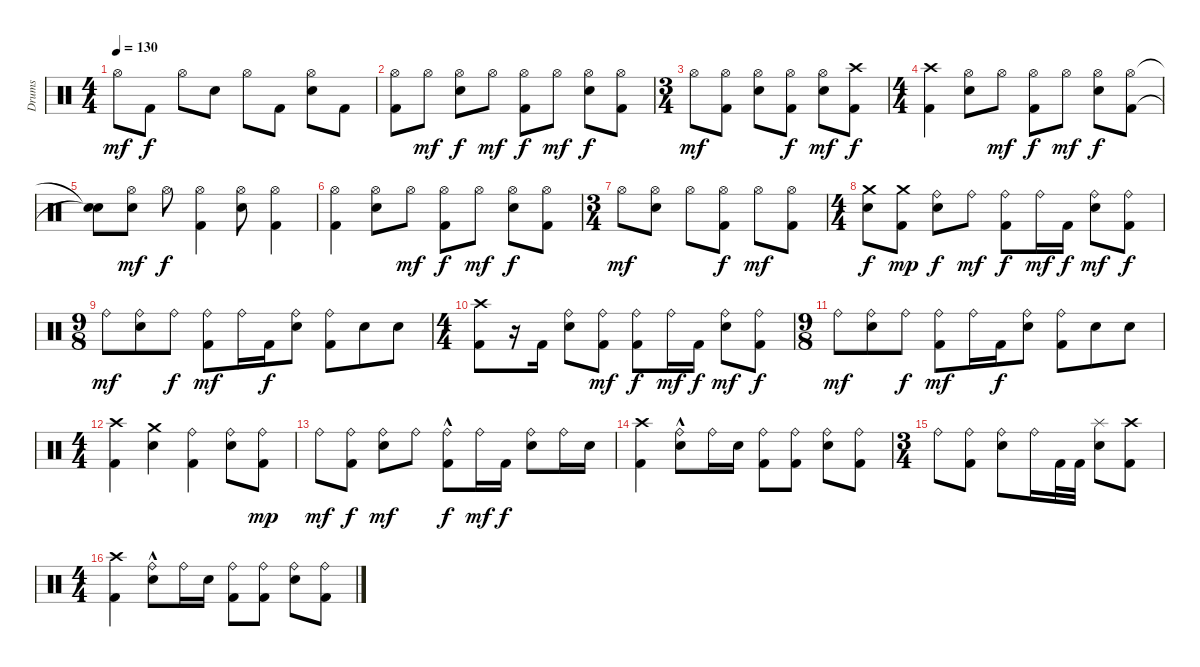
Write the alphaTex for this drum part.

\track ("Drums" "Drums") {instrument percussion}
\staff {score}
\articulation defaults
\ts (4 4)
\tempo 130
\clef neutral
\ks c "Hi-Hat (open)".8{dy mf} "Kick (hit) 2".8{dy f} "Hi-Hat (open)".8 "Electric Snare (hit)".8 "Hi-Hat (open)".8 "Kick (hit) 2".8
("Electric Snare (hit)" "Hi-Hat (open)").8 "Kick (hit) 2".8 |
("Kick (hit) 2" "Hi-Hat (open)").8 "Hi-Hat (open)".8{dy mf} ("Electric Snare (hit)" "Hi-Hat (open)").8{dy f} "Hi-Hat (open)".8{dy mf} ("Kick (hit) 2" "Hi-Hat (open)").8{dy f} "Hi-Hat (open)".8{dy mf} ("Electric Snare (hit)" "Hi-Hat (open)").8{dy f} ("Hi-Hat (open)" "Kick (hit) 2").8 |
\ts (3 4)
"Hi-Hat (open)".8{dy mf} ("Hi-Hat (open)" "Kick (hit) 2").8 ("Hi-Hat (open)" "Electric Snare (hit)").8 ("Hi-Hat (open)" "Kick (hit) 2").8{dy f} ("Electric Snare (hit)" "Hi-Hat (open)").8{dy mf} ("Kick (hit) 2" "Crash high (hit)").8{dy f} |
\ts (4 4)
("Kick (hit) 2" "Crash high (hit)").4 ("Electric Snare (hit)" "Hi-Hat (open)").8 "Hi-Hat (open)".8{dy mf} ("Kick (hit) 2" "Hi-Hat (open)").8{dy f} "Hi-Hat (open)".8{dy mf} ("Electric Snare (hit)" "Hi-Hat (open)").8{dy f} ("Kick (hit) 2" "Hi-Hat (open)").8 |
("Snare (hit)"{t} "Snare (hit)"{t}).8 ("Electric Snare (hit)" "Hi-Hat (open)").8{dy mf} "Hi-Hat (open)".8{dy f} ("Kick (hit) 2" "Hi-Hat (open)").4 ("Electric Snare (hit)" "Hi-Hat (open)").8 ("Hi-Hat (open)" "Kick (hit) 2").4 |
("Kick (hit) 2" "Hi-Hat (open)").4 ("Electric Snare (hit)" "Hi-Hat (open)").8 "Hi-Hat (open)".8{dy mf} ("Kick (hit) 2" "Hi-Hat (open)").8{dy f} "Hi-Hat (open)".8{dy mf} ("Electric Snare (hit)" "Hi-Hat (open)").8{dy f} ("Kick (hit) 2" "Hi-Hat (open)").8 |
\ts (3 4)
"Hi-Hat (open)".8{dy mf} ("Electric Snare (hit)" "Hi-Hat (open)").8 "Hi-Hat (open)".8 ("Hi-Hat (open)" "Kick (hit) 2").8{dy f} "Hi-Hat (open)".8{dy mf} ("Hi-Hat (open)" "Kick (hit) 2").8 |
\ts (4 4)
("Electric Snare (hit)" "Crash medium (hit)").8{dy f} ("Kick (hit) 2" "Crash medium (hit)").8{dy mp} ("Electric Snare (hit)" "Ride (bell)").8{dy f} "Ride (bell)".8{dy mf} ("Kick (hit) 2" "Ride (bell)").8{dy f} "Ride (bell)".16{dy mf} "Kick (hit) 2".16{dy f} ("Electric Snare (hit)" "Ride (bell)").8{dy mf} ("Kick (hit) 2" "Ride (bell)").8{dy f} |
\ts (9 8)
"Ride (bell)".8{dy mf} ("Electric Snare (hit)" "Ride (bell)").8 "Ride (bell)".8{dy f} ("Kick (hit) 2" "Ride (bell)").8{dy mf} "Ride (bell)".16 "Kick (hit) 2".16{dy f} ("Electric Snare (hit)" "Ride (bell)").8 ("Kick (hit) 2" "Ride (bell)").8 "Electric Snare (hit)".8 "Electric Snare (hit)".8 |
\ts (4 4)
("Crash high (hit)" "Kick (hit) 2").8 r.16 "Kick (hit) 2".16 ("Electric Snare (hit)" "Ride (bell)").8 ("Ride (bell)" "Kick (hit) 2").8{dy mf} ("Kick (hit) 2" "Ride (bell)").8{dy f} "Ride (bell)".16{dy mf} "Kick (hit) 2".16{dy f} ("Electric Snare (hit)" "Ride (bell)").8{dy mf} ("Kick (hit) 2" "Ride (bell)").8{dy f} |
\ts (9 8)
"Ride (bell)".8{dy mf} ("Electric Snare (hit)" "Ride (bell)").8 "Ride (bell)".8{dy f} ("Ride (bell)" "Kick (hit) 2").8{dy mf} "Ride (bell)".16 "Kick (hit) 2".16{dy f} ("Electric Snare (hit)" "Ride (bell)").8 ("Kick (hit) 2" "Ride (bell)").8 "Electric Snare (hit)".8 "Electric Snare (hit)".8 |
\ts (4 4)
("Crash high (hit)" "Kick (hit) 2").4 ("Crash medium (hit)" "Electric Snare (hit)").4 ("Kick (hit) 2" "Ride (bell)").4 ("Electric Snare (hit)" "Ride (bell)").8 ("Kick (hit) 2" "Ride (bell)").8{dy mp} |
"Ride (bell)".8{dy mf} ("Kick (hit) 2" "Ride (bell)").8{dy f} ("Electric Snare (hit)" "Ride (bell)").8{dy mf} "Ride (bell)".8 ("Kick (hit) 2"{hac} "Ride (bell)").8{dy f} "Ride (bell)".16{dy mf} "Kick (hit) 2".16{dy f} ("Electric Snare (hit)" "Ride (bell)").8 "Ride (bell)".16 "Electric Snare (hit)".16 |
("Kick (hit) 2" "Crash high (hit)").4 ("Electric Snare (hit)"{hac} "Ride (bell)").8 "Ride (bell)".16 "Electric Snare (hit)".16 ("Kick (hit) 2" "Ride (bell)").8 ("Kick (hit) 2" "Ride (bell)").8 ("Electric Snare (hit)" "Ride (bell)").8 ("Kick (hit) 2" "Ride (bell)").8 |
\ts (3 4)
"Ride (bell)".8 ("Kick (hit) 2" "Ride (bell)").8 ("Electric Snare (hit)" "Ride (bell)").8 "Ride (bell)".16 "Kick (hit) 2".32 "Kick (hit) 2".32 ("Electric Snare (hit)" "Splash (hit)").8 ("Kick (hit) 2" "Crash high (hit)").8 |
\ts (4 4)
("Crash high (hit)" "Kick (hit) 2").4 ("Electric Snare (hit)"{hac} "Ride (bell)").8 "Ride (bell)".16 "Electric Snare (hit)".16 ("Kick (hit) 2" "Ride (bell)").8 ("Kick (hit) 2" "Ride (bell)").8 ("Electric Snare (hit)" "Ride (bell)").8 ("Kick (hit) 2" "Ride (bell)").8
